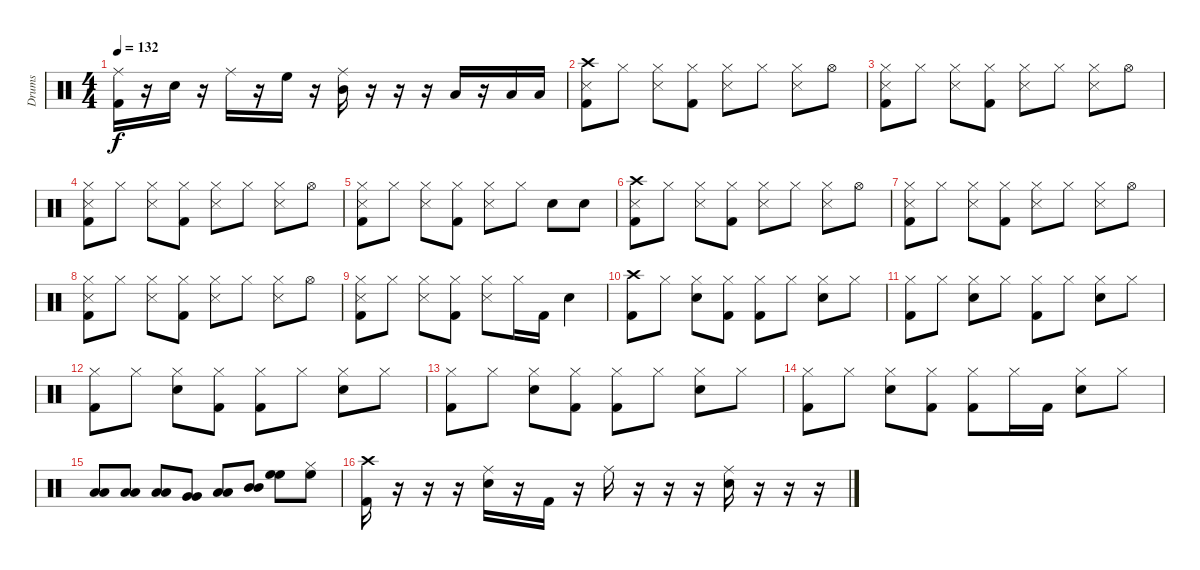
\track ("Drums" "Drums") {instrument percussion}
\staff {score}
\articulation defaults
\ts (4 4)
\tempo 132
\clef neutral
\ks c
("Ride (middle)" "Kick (hit) 2").16{dy f} r.16 "Snare (hit) 2".16 r.16 "Ride (middle)".16 r.16 "High Floor Tom (hit)".16 r.16 ("Ride (middle)" "Mid Tom (hit)").16 r.16 r.16 r.16 "Low Tom (hit)".16 r.16 "Low Floor Tom (hit)".16 "Low Floor Tom (hit)".16 |
("Crash high (hit)" "Snare (side stick) 3" "Kick (hit) 2").8 "Hi-Hat (closed)".8 ("Hi-Hat (closed)" "Snare (side stick) 3").8 ("Hi-Hat (closed)" "Kick (hit) 2").8 ("Hi-Hat (closed)" "Snare (side stick) 3").8 "Hi-Hat (closed)".8 ("Hi-Hat (closed)" "Snare (side stick) 3").8 "Hi-Hat (open)".8 |
("Hi-Hat (closed)" "Snare (side stick) 3" "Kick (hit) 2").8 "Hi-Hat (closed)".8 ("Hi-Hat (closed)" "Snare (side stick) 3").8 ("Hi-Hat (closed)" "Kick (hit) 2").8 ("Hi-Hat (closed)" "Snare (side stick) 3").8 "Hi-Hat (closed)".8 ("Hi-Hat (closed)" "Snare (side stick) 3").8 "Hi-Hat (open)".8 |
("Hi-Hat (closed)" "Snare (side stick) 3" "Kick (hit) 2").8 "Hi-Hat (closed)".8 ("Hi-Hat (closed)" "Snare (side stick) 3").8 ("Hi-Hat (closed)" "Kick (hit) 2").8 ("Hi-Hat (closed)" "Snare (side stick) 3").8 "Hi-Hat (closed)".8 ("Hi-Hat (closed)" "Snare (side stick) 3").8 "Hi-Hat (open)".8 |
("Hi-Hat (closed)" "Snare (side stick) 3" "Kick (hit) 2").8 "Hi-Hat (closed)".8 ("Hi-Hat (closed)" "Snare (side stick) 3").8 ("Hi-Hat (closed)" "Kick (hit) 2").8 ("Hi-Hat (closed)" "Snare (side stick) 3").8 "Hi-Hat (closed)".8 "Snare (hit) 2".8 "Snare (hit) 2".8 |
("Crash high (hit)" "Snare (side stick) 3" "Kick (hit) 2").8 "Hi-Hat (closed)".8 ("Hi-Hat (closed)" "Snare (side stick) 3").8 ("Hi-Hat (closed)" "Kick (hit) 2").8 ("Hi-Hat (closed)" "Snare (side stick) 3").8 "Hi-Hat (closed)".8 ("Hi-Hat (closed)" "Snare (side stick) 3").8 "Hi-Hat (open)".8 |
("Hi-Hat (closed)" "Snare (side stick) 3" "Kick (hit) 2").8 "Hi-Hat (closed)".8 ("Hi-Hat (closed)" "Snare (side stick) 3").8 ("Hi-Hat (closed)" "Kick (hit) 2").8 ("Hi-Hat (closed)" "Snare (side stick) 3").8 "Hi-Hat (closed)".8 ("Hi-Hat (closed)" "Snare (side stick) 3").8 "Hi-Hat (open)".8 |
("Hi-Hat (closed)" "Snare (side stick) 3" "Kick (hit) 2").8 "Hi-Hat (closed)".8 ("Hi-Hat (closed)" "Snare (side stick) 3").8 ("Hi-Hat (closed)" "Kick (hit) 2").8 ("Hi-Hat (closed)" "Snare (side stick) 3").8 "Hi-Hat (closed)".8 ("Hi-Hat (closed)" "Snare (side stick) 3").8 "Hi-Hat (open)".8 |
("Hi-Hat (closed)" "Snare (side stick) 3" "Kick (hit) 2").8 "Hi-Hat (closed)".8 ("Hi-Hat (closed)" "Snare (side stick) 3").8 ("Hi-Hat (closed)" "Kick (hit) 2").8 ("Hi-Hat (closed)" "Snare (side stick) 3").8 "Hi-Hat (closed)".16 "Kick (hit) 2".16 "Snare (hit) 2".4 |
("Crash high (hit)" "Kick (hit) 2").8 "Hi-Hat (closed)".8 ("Hi-Hat (closed)" "Snare (hit) 2").8 ("Hi-Hat (closed)" "Kick (hit) 2").8 ("Hi-Hat (closed)" "Kick (hit) 2").8 "Hi-Hat (closed)".8 ("Hi-Hat (closed)" "Snare (hit) 2").8 "Hi-Hat (closed)".8 |
("Hi-Hat (closed)" "Kick (hit) 2").8 "Hi-Hat (closed)".8 ("Hi-Hat (closed)" "Snare (hit) 2").8 "Hi-Hat (closed)".8 ("Hi-Hat (closed)" "Kick (hit) 2").8 "Hi-Hat (closed)".8 ("Hi-Hat (closed)" "Snare (hit) 2").8 "Hi-Hat (closed)".8 |
("Hi-Hat (closed)" "Kick (hit) 2").8 "Hi-Hat (closed)".8 ("Hi-Hat (closed)" "Snare (hit) 2").8 ("Hi-Hat (closed)" "Kick (hit) 2").8 ("Hi-Hat (closed)" "Kick (hit) 2").8 "Hi-Hat (closed)".8 ("Hi-Hat (closed)" "Snare (hit) 2").8 "Hi-Hat (closed)".8 |
("Hi-Hat (closed)" "Kick (hit) 2").8 "Hi-Hat (closed)".8 ("Hi-Hat (closed)" "Snare (hit) 2").8 ("Hi-Hat (closed)" "Kick (hit) 2").8 ("Hi-Hat (closed)" "Kick (hit) 2").8 "Hi-Hat (closed)".8 ("Hi-Hat (closed)" "Snare (hit) 2").8 "Hi-Hat (closed)".8 |
("Hi-Hat (closed)" "Kick (hit) 2").8 "Hi-Hat (closed)".8 ("Hi-Hat (closed)" "Snare (hit) 2").8 ("Hi-Hat (closed)" "Kick (hit) 2").8 ("Hi-Hat (closed)" "Kick (hit) 2").8 "Hi-Hat (closed)".16 "Kick (hit) 2".16 ("Hi-Hat (closed)" "Snare (hit) 2").8 "Hi-Hat (closed)".8 |
("Low Floor Tom (hit)" "Low Floor Tom (hit)").8 ("Low Floor Tom (hit)" "Low Floor Tom (hit)").8 ("Low Floor Tom (hit)" "Low Floor Tom (hit)").8 ("Very Low Tom (hit)" "Very Low Tom (hit)").8 ("Low Tom (hit)" "Low Tom (hit)").8 ("Mid Tom (hit)" "Mid Tom (hit)").8 ("High Floor Tom (hit)" "High Floor Tom (hit)").8 ("Hi-Hat (closed)" "High Floor Tom (hit)").8 |
("Crash high (hit)" "Kick (hit) 2").16 r.16 r.16 r.16 ("Ride (middle)" "Snare (hit) 2").16 r.16 "Kick (hit) 2".16 r.16 "Ride (middle)".16 r.16 r.16 r.16 ("Ride (middle)" "Snare (hit) 2").16 r.16 r.16 r.16
